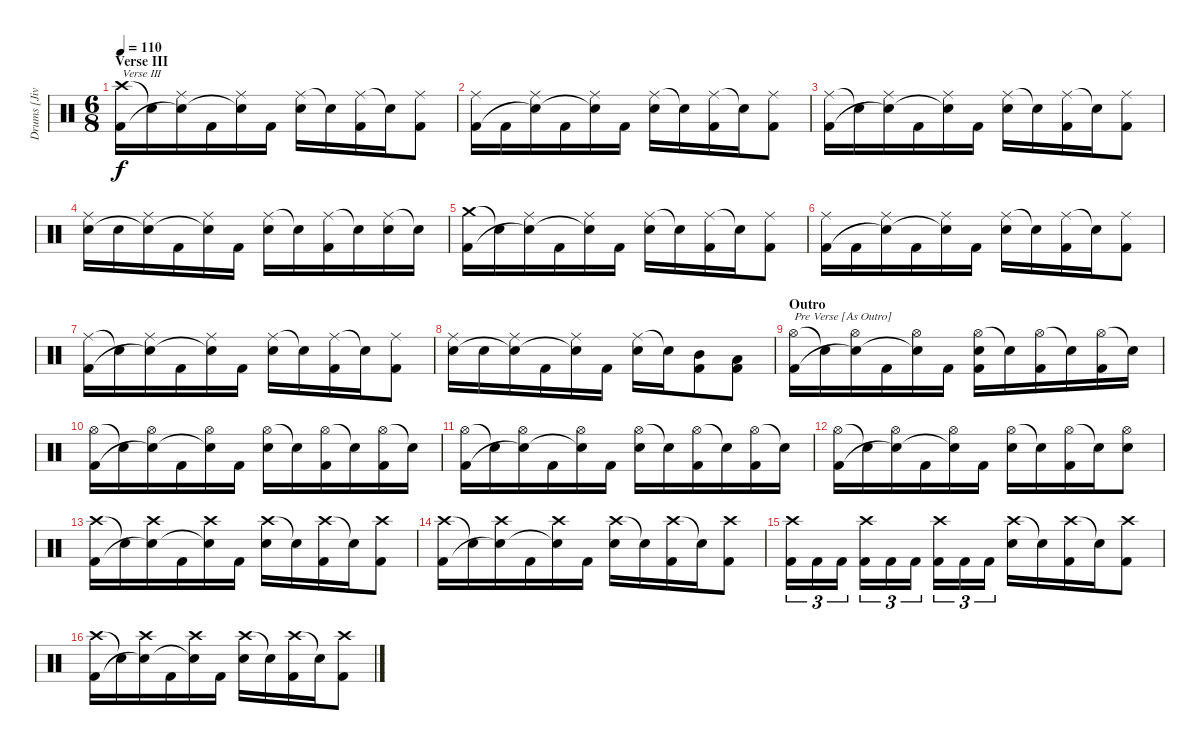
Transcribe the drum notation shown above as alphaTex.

\track ("Drums [Jivarp]" "Drums [Jiv") {instrument percussion}
\staff {score}
\articulation defaults
\ts (6 8)
\section ("" "Verse III")
\tempo 110
\clef neutral
\ks c
("Crash high (hit)" "Kick (hit) 2").16{txt "Verse III" dy f} "Snare (hit)"{t}.16 ("Ride (middle)" "Snare (hit)"{t}).16 "Kick (hit) 2".16 ("Ride (middle)" "Snare (hit)"{t}).16 "Kick (hit) 2".16 ("Ride (middle)" "Electric Snare (hit)").16 "Snare (hit)"{t}.16 ("Ride (middle)" "Kick (hit) 2").16 "Snare (hit)"{t}.16 ("Ride (middle)" "Kick (hit) 2").8 |
("Ride (middle)" "Kick (hit) 2").16 "Kick (hit) 2".16 ("Ride (middle)" "Snare (hit)"{t}).16 "Kick (hit) 2".16 ("Ride (middle)" "Snare (hit)"{t}).16 "Kick (hit) 2".16 ("Ride (middle)" "Electric Snare (hit)").16 "Snare (hit)"{t}.16 ("Ride (middle)" "Kick (hit) 2").16 "Snare (hit)"{t}.16 ("Ride (middle)" "Kick (hit) 2").8 |
("Ride (middle)" "Kick (hit) 2").16 "Snare (hit)"{t}.16 ("Ride (middle)" "Snare (hit)"{t}).16 "Kick (hit) 2".16 ("Ride (middle)" "Snare (hit)"{t}).16 "Kick (hit) 2".16 ("Ride (middle)" "Electric Snare (hit)").16 "Snare (hit)"{t}.16 ("Ride (middle)" "Kick (hit) 2").16 "Snare (hit)"{t}.16 ("Ride (middle)" "Kick (hit) 2").8 |
("Ride (middle)" "Electric Snare (hit)").16 "Electric Snare (hit)".16 ("Ride (middle)" "Snare (hit)"{t}).16 "Kick (hit) 2".16 ("Ride (middle)" "Snare (hit)"{t}).16 "Kick (hit) 2".16 ("Ride (middle)" "Electric Snare (hit)").16 "Snare (hit)"{t}.16 ("Ride (middle)" "Kick (hit) 2").16 "Snare (hit)"{t}.16 ("Ride (middle)" "Electric Snare (hit)").16 "Snare (hit)"{t}.16 |
("Crash medium (hit)" "Kick (hit) 2").16 "Snare (hit)"{t}.16 ("Ride (middle)" "Snare (hit)"{t}).16 "Kick (hit) 2".16 ("Ride (middle)" "Snare (hit)"{t}).16 "Kick (hit) 2".16 ("Ride (middle)" "Electric Snare (hit)").16 "Snare (hit)"{t}.16 ("Ride (middle)" "Kick (hit) 2").16 "Snare (hit)"{t}.16 ("Ride (middle)" "Kick (hit) 2").8 |
("Ride (middle)" "Kick (hit) 2").16 "Kick (hit) 2".16 ("Ride (middle)" "Snare (hit)"{t}).16 "Kick (hit) 2".16 ("Ride (middle)" "Snare (hit)"{t}).16 "Kick (hit) 2".16 ("Ride (middle)" "Electric Snare (hit)").16 "Snare (hit)"{t}.16 ("Ride (middle)" "Kick (hit) 2").16 "Snare (hit)"{t}.16 ("Ride (middle)" "Kick (hit) 2").8 |
("Ride (middle)" "Kick (hit) 2").16 "Snare (hit)"{t}.16 ("Ride (middle)" "Snare (hit)"{t}).16 "Kick (hit) 2".16 ("Ride (middle)" "Snare (hit)"{t}).16 "Kick (hit) 2".16 ("Ride (middle)" "Electric Snare (hit)").16 "Snare (hit)"{t}.16 ("Ride (middle)" "Kick (hit) 2").16 "Snare (hit)"{t}.16 ("Ride (middle)" "Kick (hit) 2").8 |
("Ride (middle)" "Electric Snare (hit)").16 "Electric Snare (hit)".16 ("Ride (middle)" "Snare (hit)"{t}).16 "Kick (hit) 2".16 ("Ride (middle)" "Snare (hit)"{t}).16 "Kick (hit) 2".16 ("Ride (middle)" "Electric Snare (hit)").16 "Snare (hit)"{t}.16 ("Mid Tom (hit)" "Kick (hit) 2").8 ("Low Tom (hit)" "Kick (hit) 2").8 |
\section ("" "Outro")
("Hi-Hat (open)" "Kick (hit) 2").16{txt "Pre Verse [As Outro]"} "Snare (hit)"{t}.16 ("Hi-Hat (open)" "Snare (hit)"{t}).16 "Kick (hit) 2".16 ("Hi-Hat (open)" "Snare (hit)"{t}).16 "Kick (hit) 2".16 ("Hi-Hat (open)" "Electric Snare (hit)" "Kick (hit) 2").16 "Snare (hit)"{t}.16 ("Hi-Hat (open)" "Kick (hit) 2").16 "Snare (hit)"{t}.16 ("Hi-Hat (open)" "Kick (hit) 2").16 "Snare (hit)"{t}.16 |
("Hi-Hat (open)" "Kick (hit) 2").16 "Snare (hit)"{t}.16 ("Hi-Hat (open)" "Snare (hit)"{t}).16 "Kick (hit) 2".16 ("Hi-Hat (open)" "Snare (hit)"{t}).16 "Kick (hit) 2".16 ("Hi-Hat (open)" "Electric Snare (hit)").16 "Snare (hit)"{t}.16 ("Hi-Hat (open)" "Kick (hit) 2").16 "Snare (hit)"{t}.16 ("Hi-Hat (open)" "Kick (hit) 2").16 "Snare (hit)"{t}.16 |
("Hi-Hat (open)" "Kick (hit) 2").16 "Snare (hit)"{t}.16 ("Hi-Hat (open)" "Snare (hit)"{t}).16 "Kick (hit) 2".16 ("Hi-Hat (open)" "Snare (hit)"{t}).16 "Kick (hit) 2".16 ("Hi-Hat (open)" "Electric Snare (hit)").16 "Snare (hit)"{t}.16 ("Hi-Hat (open)" "Kick (hit) 2").16 "Snare (hit)"{t}.16 ("Hi-Hat (open)" "Kick (hit) 2").16 "Snare (hit)"{t}.16 |
("Hi-Hat (open)" "Kick (hit) 2").16 "Snare (hit)"{t}.16 ("Hi-Hat (open)" "Snare (hit)"{t}).16 "Kick (hit) 2".16 ("Hi-Hat (open)" "Snare (hit)"{t}).16 "Kick (hit) 2".16 ("Hi-Hat (open)" "Electric Snare (hit)").16 "Snare (hit)"{t}.16 ("Hi-Hat (open)" "Kick (hit) 2").16 "Snare (hit)"{t}.16 ("Hi-Hat (open)" "Electric Snare (hit)").8 |
("Crash high (hit)" "Kick (hit) 2").16 "Snare (hit)"{t}.16 ("Crash high (hit)" "Snare (hit)"{t}).16 "Kick (hit) 2".16 ("Crash high (hit)" "Snare (hit)"{t}).16 "Kick (hit) 2".16 ("Crash high (hit)" "Electric Snare (hit)").16 "Snare (hit)"{t}.16 ("Crash high (hit)" "Kick (hit) 2").16 "Snare (hit)"{t}.16 ("Crash high (hit)" "Kick (hit) 2").8 |
("Crash high (hit)" "Kick (hit) 2").16 "Snare (hit)"{t}.16 ("Crash high (hit)" "Snare (hit)"{t}).16 "Kick (hit) 2".16 ("Crash high (hit)" "Snare (hit)"{t}).16 "Kick (hit) 2".16 ("Crash high (hit)" "Electric Snare (hit)").16 "Snare (hit)"{t}.16 ("Crash high (hit)" "Kick (hit) 2").16 "Snare (hit)"{t}.16 ("Crash high (hit)" "Kick (hit) 2").8 |
("Crash high (hit)" "Kick (hit) 2").16{tu (3 2)} "Kick (hit) 2".16{tu (3 2)} "Kick (hit) 2".16{tu (3 2)} ("Crash high (hit)" "Kick (hit) 2").16{tu (3 2)} "Kick (hit) 2".16{tu (3 2)} "Kick (hit) 2".16{tu (3 2)} ("Crash high (hit)" "Kick (hit) 2").16{tu (3 2)} "Kick (hit) 2".16{tu (3 2)} "Kick (hit) 2".16{tu (3 2)} ("Crash high (hit)" "Electric Snare (hit)").16 "Snare (hit)"{t}.16 ("Crash high (hit)" "Kick (hit) 2").16 "Snare (hit)"{t}.16 ("Crash high (hit)" "Kick (hit) 2").8 |
("Crash high (hit)" "Kick (hit) 2").16 "Snare (hit)"{t}.16 ("Crash high (hit)" "Snare (hit)"{t}).16 "Kick (hit) 2".16 ("Crash high (hit)" "Snare (hit)"{t}).16 "Kick (hit) 2".16 ("Crash high (hit)" "Electric Snare (hit)").16 "Snare (hit)"{t}.16 ("Crash high (hit)" "Kick (hit) 2").16 "Snare (hit)"{t}.16 ("Crash high (hit)" "Kick (hit) 2").8
